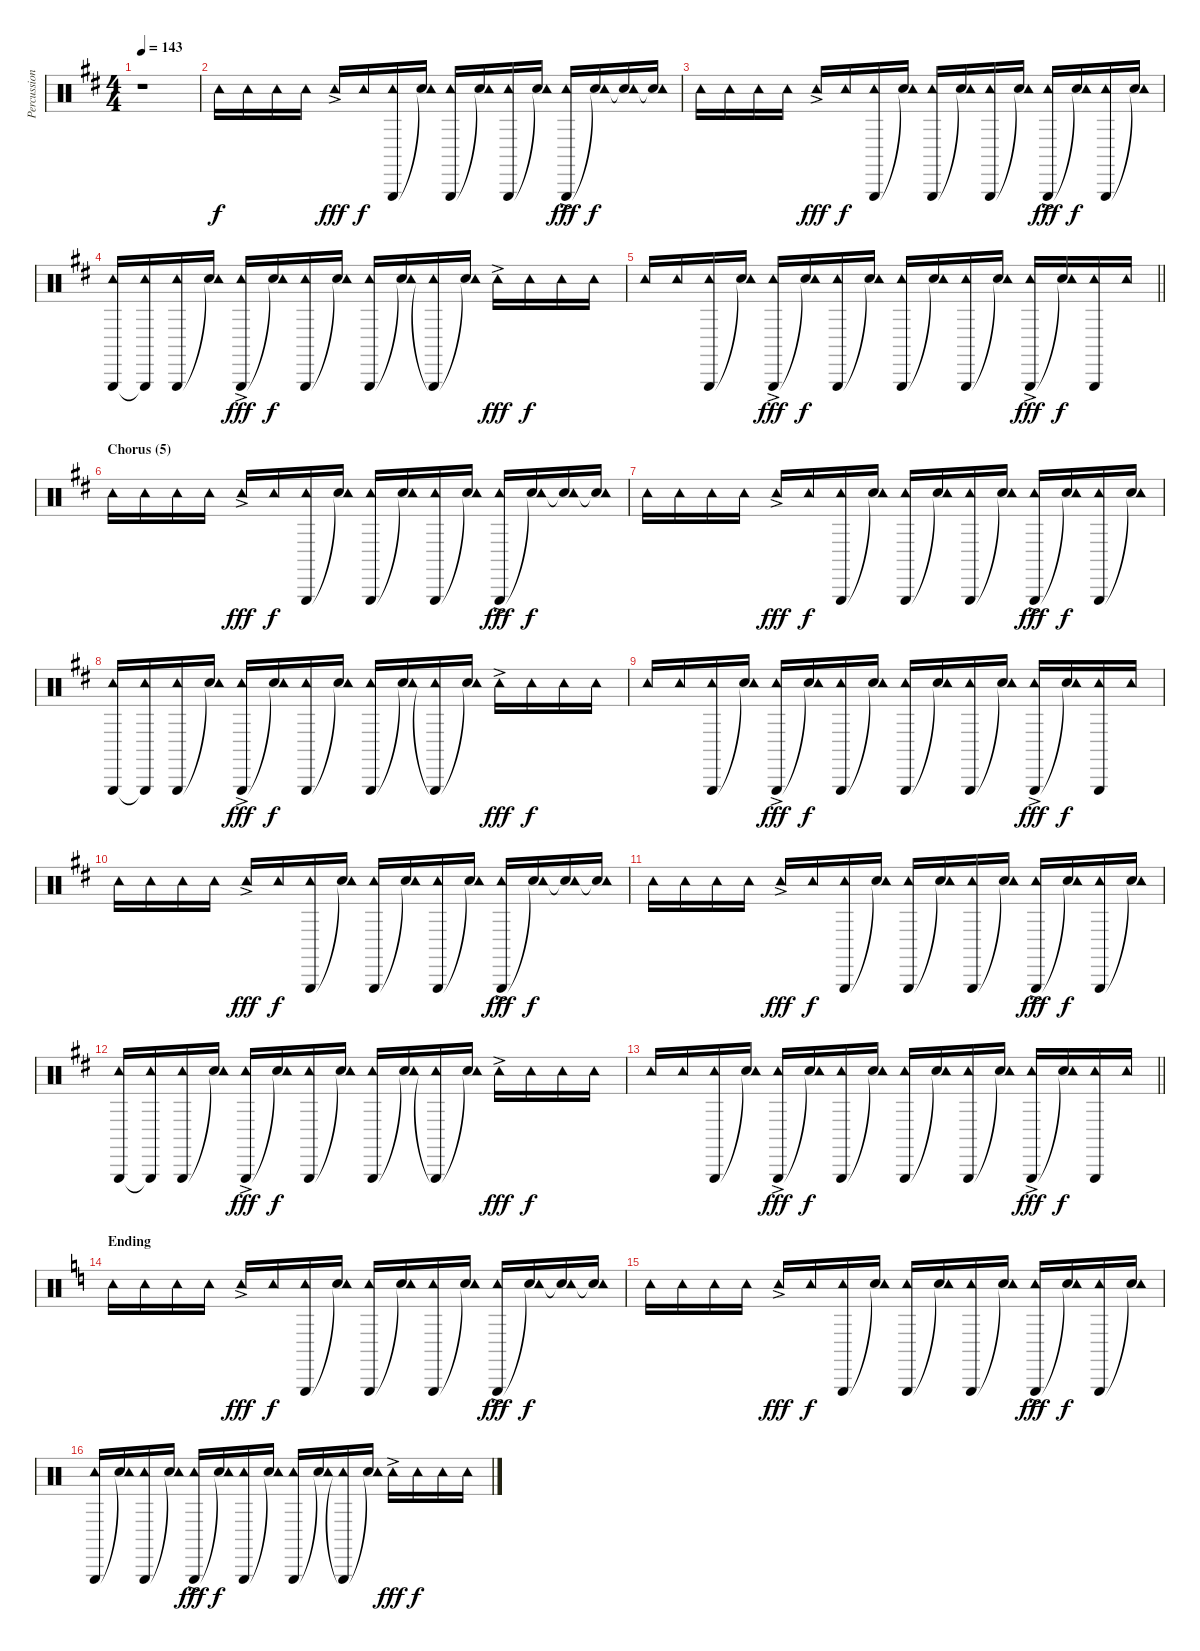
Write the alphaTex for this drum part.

\track ("Percussion" "Percussion") {instrument percussion}
\staff {score}
\articulation defaults
\ts (4 4)
\tempo 143
\clef neutral
\ks d
r.1{dy f} |
"Tambourine (hit)".16 "Tambourine (hit)".16 "Tambourine (hit)".16 "Tambourine (hit)".16 "Tambourine (hit)"{ac}.16{dy fff} "Tambourine (hit)".16{dy f} ("Triangle (hit)" "Tambourine (hit)").16 ("Snare (hit)"{t} "Tambourine (hit)").16 ("Triangle (hit)" "Tambourine (hit)").16 ("Snare (hit)"{t} "Tambourine (hit)").16 ("Triangle (hit)" "Tambourine (hit)").16 ("Snare (hit)"{t} "Tambourine (hit)").16 ("Triangle (hit)" "Tambourine (hit)"{ac}).16{dy fff} ("Snare (hit)"{t} "Tambourine (hit)").16{dy f} ("Snare (hit)"{t} "Tambourine (hit)").16 ("Snare (hit)"{t} "Tambourine (hit)").16 |
"Tambourine (hit)".16 "Tambourine (hit)".16 "Tambourine (hit)".16 "Tambourine (hit)".16 "Tambourine (hit)"{ac}.16{dy fff} "Tambourine (hit)".16{dy f} ("Triangle (hit)" "Tambourine (hit)").16 ("Snare (hit)"{t} "Tambourine (hit)").16 ("Triangle (hit)" "Tambourine (hit)").16 ("Snare (hit)"{t} "Tambourine (hit)").16 ("Triangle (hit)" "Tambourine (hit)").16 ("Snare (hit)"{t} "Tambourine (hit)").16 ("Triangle (hit)" "Tambourine (hit)"{ac}).16{dy fff} ("Snare (hit)"{t} "Tambourine (hit)").16{dy f} ("Triangle (hit)" "Tambourine (hit)").16 ("Snare (hit)"{t} "Tambourine (hit)").16 |
("Triangle (hit)" "Tambourine (hit)").16 ("Triangle (hit)"{t} "Tambourine (hit)").16 ("Triangle (hit)" "Tambourine (hit)").16 ("Snare (hit)"{t} "Tambourine (hit)").16 ("Triangle (hit)" "Tambourine (hit)"{ac}).16{dy fff} ("Snare (hit)"{t} "Tambourine (hit)").16{dy f} ("Triangle (hit)" "Tambourine (hit)").16 ("Snare (hit)"{t} "Tambourine (hit)").16 ("Triangle (hit)" "Tambourine (hit)").16 ("Snare (hit)"{t} "Tambourine (hit)").16 ("Triangle (hit)"{t} "Tambourine (hit)").16 ("Snare (hit)"{t} "Tambourine (hit)").16 "Tambourine (hit)"{ac}.16{dy fff} "Tambourine (hit)".16{dy f} "Tambourine (hit)".16 "Tambourine (hit)".16 |
\barLineRight lightlight "Tambourine (hit)".16 "Tambourine (hit)".16
("Triangle (hit)" "Tambourine (hit)").16 ("Snare (hit)"{t} "Tambourine (hit)").16 ("Triangle (hit)" "Tambourine (hit)"{ac}).16{dy fff} ("Snare (hit)"{t} "Tambourine (hit)").16{dy f} ("Triangle (hit)" "Tambourine (hit)").16 ("Snare (hit)"{t} "Tambourine (hit)").16 ("Triangle (hit)" "Tambourine (hit)").16 ("Snare (hit)"{t} "Tambourine (hit)").16 ("Triangle (hit)" "Tambourine (hit)").16 ("Snare (hit)"{t} "Tambourine (hit)").16 ("Triangle (hit)" "Tambourine (hit)"{ac}).16{dy fff} ("Snare (hit)"{t} "Tambourine (hit)").16{dy f} ("Triangle (hit)" "Tambourine (hit)").16 "Tambourine (hit)".16 |
\section ("" "Chorus (5)")
"Tambourine (hit)".16 "Tambourine (hit)".16 "Tambourine (hit)".16 "Tambourine (hit)".16 "Tambourine (hit)"{ac}.16{dy fff} "Tambourine (hit)".16{dy f} ("Triangle (hit)" "Tambourine (hit)").16 ("Snare (hit)"{t} "Tambourine (hit)").16 ("Triangle (hit)" "Tambourine (hit)").16 ("Snare (hit)"{t} "Tambourine (hit)").16 ("Triangle (hit)" "Tambourine (hit)").16 ("Snare (hit)"{t} "Tambourine (hit)").16 ("Triangle (hit)" "Tambourine (hit)"{ac}).16{dy fff} ("Snare (hit)"{t} "Tambourine (hit)").16{dy f} ("Snare (hit)"{t} "Tambourine (hit)").16 ("Snare (hit)"{t} "Tambourine (hit)").16 |
"Tambourine (hit)".16 "Tambourine (hit)".16 "Tambourine (hit)".16 "Tambourine (hit)".16 "Tambourine (hit)"{ac}.16{dy fff} "Tambourine (hit)".16{dy f} ("Triangle (hit)" "Tambourine (hit)").16 ("Snare (hit)"{t} "Tambourine (hit)").16 ("Triangle (hit)" "Tambourine (hit)").16 ("Snare (hit)"{t} "Tambourine (hit)").16 ("Triangle (hit)" "Tambourine (hit)").16 ("Snare (hit)"{t} "Tambourine (hit)").16 ("Triangle (hit)" "Tambourine (hit)"{ac}).16{dy fff} ("Snare (hit)"{t} "Tambourine (hit)").16{dy f} ("Triangle (hit)" "Tambourine (hit)").16 ("Snare (hit)"{t} "Tambourine (hit)").16 |
("Triangle (hit)" "Tambourine (hit)").16 ("Triangle (hit)"{t} "Tambourine (hit)").16 ("Triangle (hit)" "Tambourine (hit)").16 ("Snare (hit)"{t} "Tambourine (hit)").16 ("Triangle (hit)" "Tambourine (hit)"{ac}).16{dy fff} ("Snare (hit)"{t} "Tambourine (hit)").16{dy f} ("Triangle (hit)" "Tambourine (hit)").16 ("Snare (hit)"{t} "Tambourine (hit)").16 ("Triangle (hit)" "Tambourine (hit)").16 ("Snare (hit)"{t} "Tambourine (hit)").16 ("Triangle (hit)"{t} "Tambourine (hit)").16 ("Snare (hit)"{t} "Tambourine (hit)").16 "Tambourine (hit)"{ac}.16{dy fff} "Tambourine (hit)".16{dy f} "Tambourine (hit)".16 "Tambourine (hit)".16 |
"Tambourine (hit)".16 "Tambourine (hit)".16 ("Triangle (hit)" "Tambourine (hit)").16 ("Snare (hit)"{t} "Tambourine (hit)").16 ("Triangle (hit)" "Tambourine (hit)"{ac}).16{dy fff} ("Snare (hit)"{t} "Tambourine (hit)").16{dy f} ("Triangle (hit)" "Tambourine (hit)").16 ("Snare (hit)"{t} "Tambourine (hit)").16 ("Triangle (hit)" "Tambourine (hit)").16 ("Snare (hit)"{t} "Tambourine (hit)").16 ("Triangle (hit)" "Tambourine (hit)").16 ("Snare (hit)"{t} "Tambourine (hit)").16 ("Triangle (hit)" "Tambourine (hit)"{ac}).16{dy fff} ("Snare (hit)"{t} "Tambourine (hit)").16{dy f} ("Triangle (hit)" "Tambourine (hit)").16 "Tambourine (hit)".16 |
"Tambourine (hit)".16 "Tambourine (hit)".16 "Tambourine (hit)".16 "Tambourine (hit)".16 "Tambourine (hit)"{ac}.16{dy fff} "Tambourine (hit)".16{dy f} ("Triangle (hit)" "Tambourine (hit)").16 ("Snare (hit)"{t} "Tambourine (hit)").16 ("Triangle (hit)" "Tambourine (hit)").16 ("Snare (hit)"{t} "Tambourine (hit)").16 ("Triangle (hit)" "Tambourine (hit)").16 ("Snare (hit)"{t} "Tambourine (hit)").16 ("Triangle (hit)" "Tambourine (hit)"{ac}).16{dy fff} ("Snare (hit)"{t} "Tambourine (hit)").16{dy f} ("Snare (hit)"{t} "Tambourine (hit)").16 ("Snare (hit)"{t} "Tambourine (hit)").16 |
"Tambourine (hit)".16 "Tambourine (hit)".16 "Tambourine (hit)".16 "Tambourine (hit)".16 "Tambourine (hit)"{ac}.16{dy fff} "Tambourine (hit)".16{dy f} ("Triangle (hit)" "Tambourine (hit)").16 ("Snare (hit)"{t} "Tambourine (hit)").16 ("Triangle (hit)" "Tambourine (hit)").16 ("Snare (hit)"{t} "Tambourine (hit)").16 ("Triangle (hit)" "Tambourine (hit)").16 ("Snare (hit)"{t} "Tambourine (hit)").16 ("Triangle (hit)" "Tambourine (hit)"{ac}).16{dy fff} ("Snare (hit)"{t} "Tambourine (hit)").16{dy f} ("Triangle (hit)" "Tambourine (hit)").16 ("Snare (hit)"{t} "Tambourine (hit)").16 |
("Triangle (hit)" "Tambourine (hit)").16 ("Triangle (hit)"{t} "Tambourine (hit)").16 ("Triangle (hit)" "Tambourine (hit)").16 ("Snare (hit)"{t} "Tambourine (hit)").16 ("Triangle (hit)" "Tambourine (hit)"{ac}).16{dy fff} ("Snare (hit)"{t} "Tambourine (hit)").16{dy f} ("Triangle (hit)" "Tambourine (hit)").16 ("Snare (hit)"{t} "Tambourine (hit)").16 ("Triangle (hit)" "Tambourine (hit)").16 ("Snare (hit)"{t} "Tambourine (hit)").16 ("Triangle (hit)"{t} "Tambourine (hit)").16 ("Snare (hit)"{t} "Tambourine (hit)").16 "Tambourine (hit)"{ac}.16{dy fff} "Tambourine (hit)".16{dy f} "Tambourine (hit)".16 "Tambourine (hit)".16 |
\barLineRight lightlight "Tambourine (hit)".16 "Tambourine (hit)".16
("Triangle (hit)" "Tambourine (hit)").16 ("Snare (hit)"{t} "Tambourine (hit)").16 ("Triangle (hit)" "Tambourine (hit)"{ac}).16{dy fff} ("Snare (hit)"{t} "Tambourine (hit)").16{dy f} ("Triangle (hit)" "Tambourine (hit)").16 ("Snare (hit)"{t} "Tambourine (hit)").16 ("Triangle (hit)" "Tambourine (hit)").16 ("Snare (hit)"{t} "Tambourine (hit)").16 ("Triangle (hit)" "Tambourine (hit)").16 ("Snare (hit)"{t} "Tambourine (hit)").16 ("Triangle (hit)" "Tambourine (hit)"{ac}).16{dy fff} ("Snare (hit)"{t} "Tambourine (hit)").16{dy f} ("Triangle (hit)" "Tambourine (hit)").16 "Tambourine (hit)".16 |
\section ("" "Ending")
\ks aminor "Tambourine (hit)".16 "Tambourine (hit)".16 "Tambourine (hit)".16 "Tambourine (hit)".16 "Tambourine (hit)"{ac}.16{dy fff} "Tambourine (hit)".16{dy f}
("Triangle (hit)" "Tambourine (hit)").16 ("Snare (hit)"{t} "Tambourine (hit)").16 ("Triangle (hit)" "Tambourine (hit)").16 ("Snare (hit)"{t} "Tambourine (hit)").16 ("Triangle (hit)" "Tambourine (hit)").16 ("Snare (hit)"{t} "Tambourine (hit)").16 ("Triangle (hit)" "Tambourine (hit)"{ac}).16{dy fff} ("Snare (hit)"{t} "Tambourine (hit)").16{dy f} ("Snare (hit)"{t} "Tambourine (hit)").16 ("Snare (hit)"{t} "Tambourine (hit)").16 |
"Tambourine (hit)".16 "Tambourine (hit)".16 "Tambourine (hit)".16 "Tambourine (hit)".16 "Tambourine (hit)"{ac}.16{dy fff} "Tambourine (hit)".16{dy f} ("Triangle (hit)" "Tambourine (hit)").16 ("Snare (hit)"{t} "Tambourine (hit)").16 ("Triangle (hit)" "Tambourine (hit)").16 ("Snare (hit)"{t} "Tambourine (hit)").16 ("Triangle (hit)" "Tambourine (hit)").16 ("Snare (hit)"{t} "Tambourine (hit)").16 ("Triangle (hit)" "Tambourine (hit)"{ac}).16{dy fff} ("Snare (hit)"{t} "Tambourine (hit)").16{dy f} ("Triangle (hit)" "Tambourine (hit)").16 ("Snare (hit)"{t} "Tambourine (hit)").16 |
("Triangle (hit)" "Tambourine (hit)").16 ("Snare (hit)"{t} "Tambourine (hit)").16 ("Triangle (hit)" "Tambourine (hit)").16 ("Snare (hit)"{t} "Tambourine (hit)").16 ("Triangle (hit)" "Tambourine (hit)"{ac}).16{dy fff} ("Snare (hit)"{t} "Tambourine (hit)").16{dy f} ("Triangle (hit)" "Tambourine (hit)").16 ("Snare (hit)"{t} "Tambourine (hit)").16 ("Triangle (hit)" "Tambourine (hit)").16 ("Snare (hit)"{t} "Tambourine (hit)").16 ("Triangle (hit)"{t} "Tambourine (hit)").16 ("Snare (hit)"{t} "Tambourine (hit)").16 "Tambourine (hit)"{ac}.16{dy fff} "Tambourine (hit)".16{dy f} "Tambourine (hit)".16 "Tambourine (hit)".16
